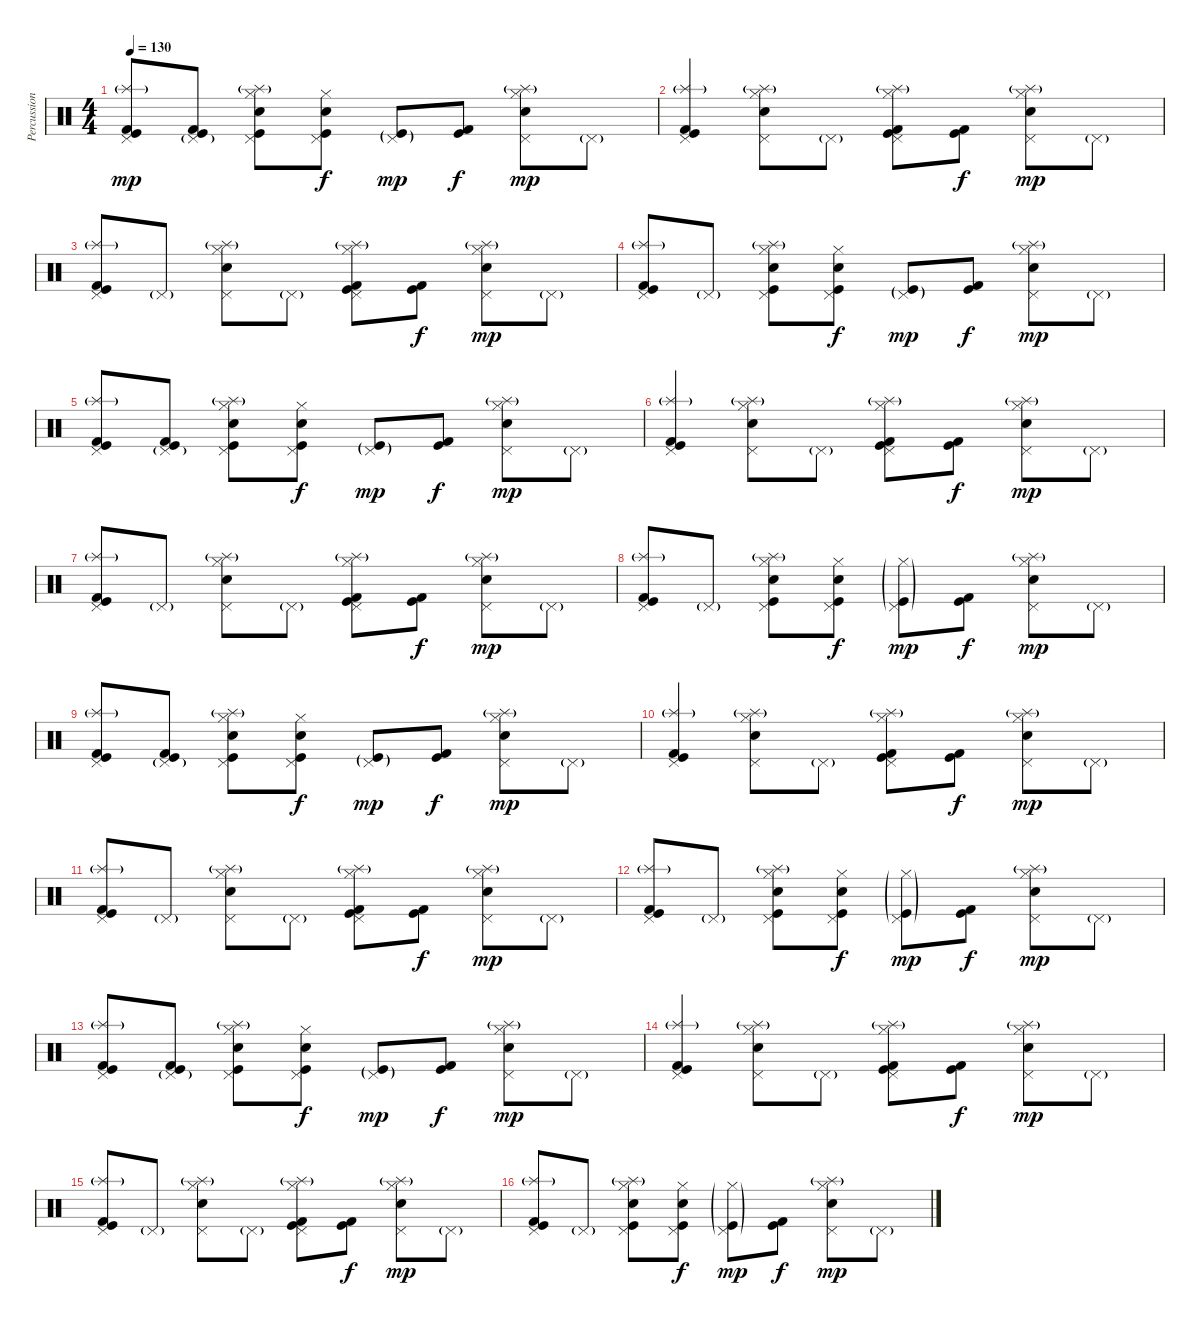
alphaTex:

\track ("Percussion(Wendell Garcia)" "Percussion") {instrument percussion}
\staff {score}
\articulation defaults
\ts (4 4)
\tempo 130
\clef neutral
\ks c
("Pedal Hi-Hat (hit)" "Splash (hit)"{g} "Kick (hit)" "Kick (hit) 2").8{dy mp} ("Pedal Hi-Hat (hit)"{g} "Kick (hit) 2" "Kick (hit)").8 ("Electric Snare (hit)" "Splash (hit)"{g} "Pedal Hi-Hat (hit)" "Hi-Hat (closed)" "Kick (hit)").8 ("Electric Snare (hit)" "Kick (hit)" "Pedal Hi-Hat (hit)" "Hi-Hat (closed)").8{dy f} ("Kick (hit)"{g} "Pedal Hi-Hat (hit)"{g}).8{dy mp} ("Kick (hit) 2" "Kick (hit)").8{dy f} ("Electric Snare (hit)" "Splash (hit)"{g} "Hi-Hat (closed)" "Pedal Hi-Hat (hit)").8{dy mp} "Pedal Hi-Hat (hit)"{g}.8 |
("Pedal Hi-Hat (hit)" "Splash (hit)"{g} "Kick (hit)" "Kick (hit) 2").4 ("Electric Snare (hit)" "Splash (hit)"{g} "Pedal Hi-Hat (hit)" "Hi-Hat (closed)").8 "Pedal Hi-Hat (hit)"{g}.8 ("Kick (hit) 2" "Splash (hit)"{g} "Pedal Hi-Hat (hit)" "Hi-Hat (closed)" "Kick (hit)").8 ("Kick (hit) 2" "Kick (hit)").8{dy f} ("Electric Snare (hit)" "Splash (hit)"{g} "Pedal Hi-Hat (hit)" "Hi-Hat (closed)").8{dy mp} "Pedal Hi-Hat (hit)"{g}.8 |
("Pedal Hi-Hat (hit)" "Splash (hit)"{g} "Kick (hit)" "Kick (hit) 2").8 "Pedal Hi-Hat (hit)"{g}.8 ("Electric Snare (hit)" "Splash (hit)"{g} "Pedal Hi-Hat (hit)" "Hi-Hat (closed)").8 "Pedal Hi-Hat (hit)"{g}.8 ("Kick (hit) 2" "Splash (hit)"{g} "Pedal Hi-Hat (hit)" "Hi-Hat (closed)" "Kick (hit)").8 ("Kick (hit) 2" "Kick (hit)").8{dy f} ("Electric Snare (hit)" "Splash (hit)"{g} "Pedal Hi-Hat (hit)" "Hi-Hat (closed)").8{dy mp} "Pedal Hi-Hat (hit)"{g}.8 |
("Pedal Hi-Hat (hit)" "Splash (hit)"{g} "Kick (hit)" "Kick (hit) 2").8 "Pedal Hi-Hat (hit)"{g}.8 ("Electric Snare (hit)" "Kick (hit)" "Pedal Hi-Hat (hit)" "Hi-Hat (closed)" "Splash (hit)"{g}).8 ("Electric Snare (hit)" "Kick (hit)" "Pedal Hi-Hat (hit)" "Hi-Hat (closed)").8{dy f} ("Kick (hit)"{g} "Pedal Hi-Hat (hit)"{g}).8{dy mp} ("Kick (hit) 2" "Kick (hit)").8{dy f} ("Electric Snare (hit)" "Splash (hit)"{g} "Pedal Hi-Hat (hit)" "Hi-Hat (closed)").8{dy mp} "Pedal Hi-Hat (hit)"{g}.8 |
("Pedal Hi-Hat (hit)" "Splash (hit)"{g} "Kick (hit)" "Kick (hit) 2").8 ("Pedal Hi-Hat (hit)"{g} "Kick (hit) 2" "Kick (hit)").8 ("Electric Snare (hit)" "Splash (hit)"{g} "Pedal Hi-Hat (hit)" "Hi-Hat (closed)" "Kick (hit)").8 ("Electric Snare (hit)" "Kick (hit)" "Pedal Hi-Hat (hit)" "Hi-Hat (closed)").8{dy f} ("Kick (hit)"{g} "Pedal Hi-Hat (hit)"{g}).8{dy mp} ("Kick (hit) 2" "Kick (hit)").8{dy f} ("Electric Snare (hit)" "Splash (hit)"{g} "Hi-Hat (closed)" "Pedal Hi-Hat (hit)").8{dy mp} "Pedal Hi-Hat (hit)"{g}.8 |
("Pedal Hi-Hat (hit)" "Splash (hit)"{g} "Kick (hit)" "Kick (hit) 2").4 ("Electric Snare (hit)" "Splash (hit)"{g} "Pedal Hi-Hat (hit)" "Hi-Hat (closed)").8 "Pedal Hi-Hat (hit)"{g}.8 ("Kick (hit) 2" "Splash (hit)"{g} "Pedal Hi-Hat (hit)" "Hi-Hat (closed)" "Kick (hit)").8 ("Kick (hit) 2" "Kick (hit)").8{dy f} ("Electric Snare (hit)" "Splash (hit)"{g} "Pedal Hi-Hat (hit)" "Hi-Hat (closed)").8{dy mp} "Pedal Hi-Hat (hit)"{g}.8 |
("Pedal Hi-Hat (hit)" "Splash (hit)"{g} "Kick (hit)" "Kick (hit) 2").8 "Pedal Hi-Hat (hit)"{g}.8 ("Electric Snare (hit)" "Splash (hit)"{g} "Pedal Hi-Hat (hit)" "Hi-Hat (closed)").8 "Pedal Hi-Hat (hit)"{g}.8 ("Kick (hit) 2" "Splash (hit)"{g} "Pedal Hi-Hat (hit)" "Hi-Hat (closed)" "Kick (hit)").8 ("Kick (hit) 2" "Kick (hit)").8{dy f} ("Electric Snare (hit)" "Splash (hit)"{g} "Pedal Hi-Hat (hit)" "Hi-Hat (closed)").8{dy mp} "Pedal Hi-Hat (hit)"{g}.8 |
("Pedal Hi-Hat (hit)" "Splash (hit)"{g} "Kick (hit)" "Kick (hit) 2").8 "Pedal Hi-Hat (hit)"{g}.8 ("Electric Snare (hit)" "Kick (hit)" "Pedal Hi-Hat (hit)" "Hi-Hat (closed)" "Splash (hit)"{g}).8 ("Electric Snare (hit)" "Kick (hit)" "Pedal Hi-Hat (hit)" "Hi-Hat (closed)").8{dy f} ("Kick (hit)"{g} "Pedal Hi-Hat (hit)"{g} "Hi-Hat (closed)"{g}).8{dy mp} ("Kick (hit) 2" "Kick (hit)").8{dy f} ("Electric Snare (hit)" "Splash (hit)"{g} "Pedal Hi-Hat (hit)" "Hi-Hat (closed)").8{dy mp} "Pedal Hi-Hat (hit)"{g}.8 |
("Pedal Hi-Hat (hit)" "Splash (hit)"{g} "Kick (hit)" "Kick (hit) 2").8 ("Pedal Hi-Hat (hit)"{g} "Kick (hit) 2" "Kick (hit)").8 ("Electric Snare (hit)" "Splash (hit)"{g} "Pedal Hi-Hat (hit)" "Hi-Hat (closed)" "Kick (hit)").8 ("Electric Snare (hit)" "Kick (hit)" "Pedal Hi-Hat (hit)" "Hi-Hat (closed)").8{dy f} ("Kick (hit)"{g} "Pedal Hi-Hat (hit)"{g}).8{dy mp} ("Kick (hit) 2" "Kick (hit)").8{dy f} ("Electric Snare (hit)" "Splash (hit)"{g} "Hi-Hat (closed)" "Pedal Hi-Hat (hit)").8{dy mp} "Pedal Hi-Hat (hit)"{g}.8 |
("Pedal Hi-Hat (hit)" "Splash (hit)"{g} "Kick (hit)" "Kick (hit) 2").4 ("Electric Snare (hit)" "Splash (hit)"{g} "Pedal Hi-Hat (hit)" "Hi-Hat (closed)").8 "Pedal Hi-Hat (hit)"{g}.8 ("Kick (hit) 2" "Splash (hit)"{g} "Pedal Hi-Hat (hit)" "Hi-Hat (closed)" "Kick (hit)").8 ("Kick (hit) 2" "Kick (hit)").8{dy f} ("Electric Snare (hit)" "Splash (hit)"{g} "Pedal Hi-Hat (hit)" "Hi-Hat (closed)").8{dy mp} "Pedal Hi-Hat (hit)"{g}.8 |
("Pedal Hi-Hat (hit)" "Splash (hit)"{g} "Kick (hit)" "Kick (hit) 2").8 "Pedal Hi-Hat (hit)"{g}.8 ("Electric Snare (hit)" "Splash (hit)"{g} "Pedal Hi-Hat (hit)" "Hi-Hat (closed)").8 "Pedal Hi-Hat (hit)"{g}.8 ("Kick (hit) 2" "Splash (hit)"{g} "Pedal Hi-Hat (hit)" "Hi-Hat (closed)" "Kick (hit)").8 ("Kick (hit) 2" "Kick (hit)").8{dy f} ("Electric Snare (hit)" "Splash (hit)"{g} "Pedal Hi-Hat (hit)" "Hi-Hat (closed)").8{dy mp} "Pedal Hi-Hat (hit)"{g}.8 |
("Pedal Hi-Hat (hit)" "Splash (hit)"{g} "Kick (hit)" "Kick (hit) 2").8 "Pedal Hi-Hat (hit)"{g}.8 ("Electric Snare (hit)" "Kick (hit)" "Pedal Hi-Hat (hit)" "Hi-Hat (closed)" "Splash (hit)"{g}).8 ("Electric Snare (hit)" "Kick (hit)" "Pedal Hi-Hat (hit)" "Hi-Hat (closed)").8{dy f} ("Kick (hit)"{g} "Pedal Hi-Hat (hit)"{g} "Hi-Hat (closed)"{g}).8{dy mp} ("Kick (hit) 2" "Kick (hit)").8{dy f} ("Electric Snare (hit)" "Splash (hit)"{g} "Pedal Hi-Hat (hit)" "Hi-Hat (closed)").8{dy mp} "Pedal Hi-Hat (hit)"{g}.8 |
("Pedal Hi-Hat (hit)" "Splash (hit)"{g} "Kick (hit)" "Kick (hit) 2").8 ("Pedal Hi-Hat (hit)"{g} "Kick (hit) 2" "Kick (hit)").8 ("Electric Snare (hit)" "Splash (hit)"{g} "Pedal Hi-Hat (hit)" "Hi-Hat (closed)" "Kick (hit)").8 ("Electric Snare (hit)" "Kick (hit)" "Pedal Hi-Hat (hit)" "Hi-Hat (closed)").8{dy f} ("Kick (hit)"{g} "Pedal Hi-Hat (hit)"{g}).8{dy mp} ("Kick (hit) 2" "Kick (hit)").8{dy f} ("Electric Snare (hit)" "Splash (hit)"{g} "Hi-Hat (closed)" "Pedal Hi-Hat (hit)").8{dy mp} "Pedal Hi-Hat (hit)"{g}.8 |
("Pedal Hi-Hat (hit)" "Splash (hit)"{g} "Kick (hit)" "Kick (hit) 2").4 ("Electric Snare (hit)" "Splash (hit)"{g} "Pedal Hi-Hat (hit)" "Hi-Hat (closed)").8 "Pedal Hi-Hat (hit)"{g}.8 ("Kick (hit) 2" "Splash (hit)"{g} "Pedal Hi-Hat (hit)" "Hi-Hat (closed)" "Kick (hit)").8 ("Kick (hit) 2" "Kick (hit)").8{dy f} ("Electric Snare (hit)" "Splash (hit)"{g} "Pedal Hi-Hat (hit)" "Hi-Hat (closed)").8{dy mp} "Pedal Hi-Hat (hit)"{g}.8 |
("Pedal Hi-Hat (hit)" "Splash (hit)"{g} "Kick (hit)" "Kick (hit) 2").8 "Pedal Hi-Hat (hit)"{g}.8 ("Electric Snare (hit)" "Splash (hit)"{g} "Pedal Hi-Hat (hit)" "Hi-Hat (closed)").8 "Pedal Hi-Hat (hit)"{g}.8 ("Kick (hit) 2" "Splash (hit)"{g} "Pedal Hi-Hat (hit)" "Hi-Hat (closed)" "Kick (hit)").8 ("Kick (hit) 2" "Kick (hit)").8{dy f} ("Electric Snare (hit)" "Splash (hit)"{g} "Pedal Hi-Hat (hit)" "Hi-Hat (closed)").8{dy mp} "Pedal Hi-Hat (hit)"{g}.8 |
("Pedal Hi-Hat (hit)" "Splash (hit)"{g} "Kick (hit)" "Kick (hit) 2").8 "Pedal Hi-Hat (hit)"{g}.8 ("Electric Snare (hit)" "Kick (hit)" "Pedal Hi-Hat (hit)" "Hi-Hat (closed)" "Splash (hit)"{g}).8 ("Electric Snare (hit)" "Kick (hit)" "Pedal Hi-Hat (hit)" "Hi-Hat (closed)").8{dy f} ("Kick (hit)"{g} "Pedal Hi-Hat (hit)"{g} "Hi-Hat (closed)"{g}).8{dy mp} ("Kick (hit) 2" "Kick (hit)").8{dy f} ("Electric Snare (hit)" "Splash (hit)"{g} "Pedal Hi-Hat (hit)" "Hi-Hat (closed)").8{dy mp} "Pedal Hi-Hat (hit)"{g}.8
